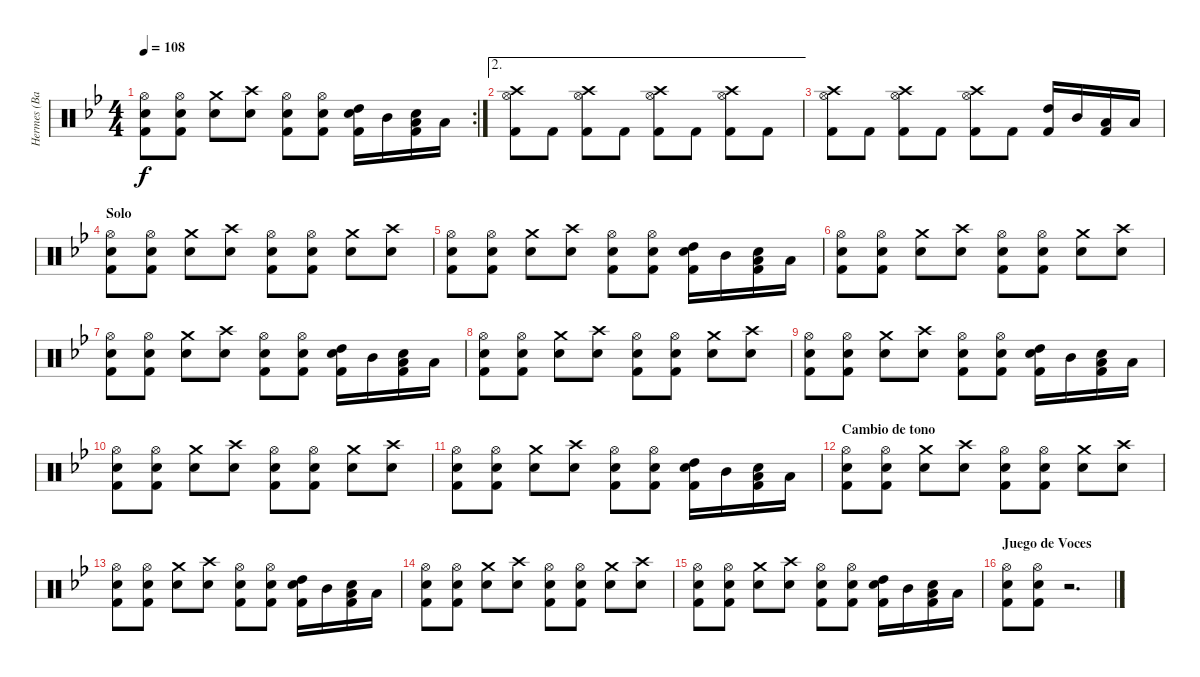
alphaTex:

\track ("Hermes (Bateria)" "Hermes (Ba") {instrument percussion}
\staff {score}
\articulation defaults
\rc 2
\ts (4 4)
\tempo 108
\clef neutral
\ks bb
("Hi-Hat (open)" "Electric Snare (hit)" "Kick (hit) 2").8{dy f} ("Hi-Hat (open)" "Electric Snare (hit)" "Kick (hit) 2").8 ("Crash medium (hit)" "Electric Snare (hit)").8 ("Crash high (hit)" "Electric Snare (hit)").8 ("Hi-Hat (open)" "Electric Snare (hit)" "Kick (hit) 2").8 ("Hi-Hat (open)" "Electric Snare (hit)" "Kick (hit) 2").8 ("High Tom (hit)" "Electric Snare (hit)" "Kick (hit) 2").16 "Mid Tom (hit)".16 ("Low Tom (hit)" "Electric Snare (hit)" "Kick (hit) 2").16 "Low Tom (hit)".16 |
\ae 2
("Crash high (hit)" "Hi-Hat (open)" "Kick (hit) 2").8 "Kick (hit) 2".8 ("Crash high (hit)" "Hi-Hat (open)" "Kick (hit) 2").8 "Kick (hit) 2".8 ("Crash high (hit)" "Hi-Hat (open)" "Kick (hit) 2").8 "Kick (hit) 2".8 ("Crash high (hit)" "Hi-Hat (open)" "Kick (hit) 2").8 "Kick (hit) 2".8 |
("Crash high (hit)" "Hi-Hat (open)" "Kick (hit) 2").8 "Kick (hit) 2".8 ("Crash high (hit)" "Hi-Hat (open)" "Kick (hit) 2").8 "Kick (hit) 2".8 ("Crash high (hit)" "Hi-Hat (open)" "Kick (hit) 2").8 "Kick (hit) 2".8 ("High Tom (hit)" "Kick (hit) 2").16 "Mid Tom (hit)".16 ("Low Tom (hit)" "Kick (hit) 2").16 "Low Tom (hit)".16 |
\section ("" "Solo")
("Hi-Hat (open)" "Electric Snare (hit)" "Kick (hit) 2").8 ("Hi-Hat (open)" "Electric Snare (hit)" "Kick (hit) 2").8 ("Crash medium (hit)" "Electric Snare (hit)").8 ("Crash high (hit)" "Electric Snare (hit)").8 ("Hi-Hat (open)" "Electric Snare (hit)" "Kick (hit) 2").8 ("Hi-Hat (open)" "Electric Snare (hit)" "Kick (hit) 2").8 ("Crash medium (hit)" "Electric Snare (hit)").8 ("Crash high (hit)" "Electric Snare (hit)").8 |
("Hi-Hat (open)" "Electric Snare (hit)" "Kick (hit) 2").8 ("Hi-Hat (open)" "Electric Snare (hit)" "Kick (hit) 2").8 ("Crash medium (hit)" "Electric Snare (hit)").8 ("Crash high (hit)" "Electric Snare (hit)").8 ("Hi-Hat (open)" "Electric Snare (hit)" "Kick (hit) 2").8 ("Hi-Hat (open)" "Electric Snare (hit)" "Kick (hit) 2").8 ("High Tom (hit)" "Electric Snare (hit)" "Kick (hit) 2").16 "Mid Tom (hit)".16 ("Low Tom (hit)" "Electric Snare (hit)" "Kick (hit) 2").16 "Low Tom (hit)".16 |
("Hi-Hat (open)" "Electric Snare (hit)" "Kick (hit) 2").8 ("Hi-Hat (open)" "Electric Snare (hit)" "Kick (hit) 2").8 ("Crash medium (hit)" "Electric Snare (hit)").8 ("Crash high (hit)" "Electric Snare (hit)").8 ("Hi-Hat (open)" "Electric Snare (hit)" "Kick (hit) 2").8 ("Hi-Hat (open)" "Electric Snare (hit)" "Kick (hit) 2").8 ("Crash medium (hit)" "Electric Snare (hit)").8 ("Crash high (hit)" "Electric Snare (hit)").8 |
("Hi-Hat (open)" "Electric Snare (hit)" "Kick (hit) 2").8 ("Hi-Hat (open)" "Electric Snare (hit)" "Kick (hit) 2").8 ("Crash medium (hit)" "Electric Snare (hit)").8 ("Crash high (hit)" "Electric Snare (hit)").8 ("Hi-Hat (open)" "Electric Snare (hit)" "Kick (hit) 2").8 ("Hi-Hat (open)" "Electric Snare (hit)" "Kick (hit) 2").8 ("High Tom (hit)" "Electric Snare (hit)" "Kick (hit) 2").16 "Mid Tom (hit)".16 ("Low Tom (hit)" "Electric Snare (hit)" "Kick (hit) 2").16 "Low Tom (hit)".16 |
("Hi-Hat (open)" "Electric Snare (hit)" "Kick (hit) 2").8 ("Hi-Hat (open)" "Electric Snare (hit)" "Kick (hit) 2").8 ("Crash medium (hit)" "Electric Snare (hit)").8 ("Crash high (hit)" "Electric Snare (hit)").8 ("Hi-Hat (open)" "Electric Snare (hit)" "Kick (hit) 2").8 ("Hi-Hat (open)" "Electric Snare (hit)" "Kick (hit) 2").8 ("Crash medium (hit)" "Electric Snare (hit)").8 ("Crash high (hit)" "Electric Snare (hit)").8 |
("Hi-Hat (open)" "Electric Snare (hit)" "Kick (hit) 2").8 ("Hi-Hat (open)" "Electric Snare (hit)" "Kick (hit) 2").8 ("Crash medium (hit)" "Electric Snare (hit)").8 ("Crash high (hit)" "Electric Snare (hit)").8 ("Hi-Hat (open)" "Electric Snare (hit)" "Kick (hit) 2").8 ("Hi-Hat (open)" "Electric Snare (hit)" "Kick (hit) 2").8 ("High Tom (hit)" "Electric Snare (hit)" "Kick (hit) 2").16 "Mid Tom (hit)".16 ("Low Tom (hit)" "Electric Snare (hit)" "Kick (hit) 2").16 "Low Tom (hit)".16 |
("Hi-Hat (open)" "Electric Snare (hit)" "Kick (hit) 2").8 ("Hi-Hat (open)" "Electric Snare (hit)" "Kick (hit) 2").8 ("Crash medium (hit)" "Electric Snare (hit)").8 ("Crash high (hit)" "Electric Snare (hit)").8 ("Hi-Hat (open)" "Electric Snare (hit)" "Kick (hit) 2").8 ("Hi-Hat (open)" "Electric Snare (hit)" "Kick (hit) 2").8 ("Crash medium (hit)" "Electric Snare (hit)").8 ("Crash high (hit)" "Electric Snare (hit)").8 |
("Hi-Hat (open)" "Electric Snare (hit)" "Kick (hit) 2").8 ("Hi-Hat (open)" "Electric Snare (hit)" "Kick (hit) 2").8 ("Crash medium (hit)" "Electric Snare (hit)").8 ("Crash high (hit)" "Electric Snare (hit)").8 ("Hi-Hat (open)" "Electric Snare (hit)" "Kick (hit) 2").8 ("Hi-Hat (open)" "Electric Snare (hit)" "Kick (hit) 2").8 ("High Tom (hit)" "Electric Snare (hit)" "Kick (hit) 2").16 "Mid Tom (hit)".16 ("Low Tom (hit)" "Electric Snare (hit)" "Kick (hit) 2").16 "Low Tom (hit)".16 |
\section ("" "Cambio de tono")
("Hi-Hat (open)" "Electric Snare (hit)" "Kick (hit) 2").8 ("Hi-Hat (open)" "Electric Snare (hit)" "Kick (hit) 2").8 ("Crash medium (hit)" "Electric Snare (hit)").8 ("Crash high (hit)" "Electric Snare (hit)").8 ("Hi-Hat (open)" "Electric Snare (hit)" "Kick (hit) 2").8 ("Hi-Hat (open)" "Electric Snare (hit)" "Kick (hit) 2").8 ("Crash medium (hit)" "Electric Snare (hit)").8 ("Crash high (hit)" "Electric Snare (hit)").8 |
("Hi-Hat (open)" "Electric Snare (hit)" "Kick (hit) 2").8 ("Hi-Hat (open)" "Electric Snare (hit)" "Kick (hit) 2").8 ("Crash medium (hit)" "Electric Snare (hit)").8 ("Crash high (hit)" "Electric Snare (hit)").8 ("Hi-Hat (open)" "Electric Snare (hit)" "Kick (hit) 2").8 ("Hi-Hat (open)" "Electric Snare (hit)" "Kick (hit) 2").8 ("High Tom (hit)" "Electric Snare (hit)" "Kick (hit) 2").16 "Mid Tom (hit)".16 ("Low Tom (hit)" "Electric Snare (hit)" "Kick (hit) 2").16 "Low Tom (hit)".16 |
("Hi-Hat (open)" "Electric Snare (hit)" "Kick (hit) 2").8 ("Hi-Hat (open)" "Electric Snare (hit)" "Kick (hit) 2").8 ("Crash medium (hit)" "Electric Snare (hit)").8 ("Crash high (hit)" "Electric Snare (hit)").8 ("Hi-Hat (open)" "Electric Snare (hit)" "Kick (hit) 2").8 ("Hi-Hat (open)" "Electric Snare (hit)" "Kick (hit) 2").8 ("Crash medium (hit)" "Electric Snare (hit)").8 ("Crash high (hit)" "Electric Snare (hit)").8 |
("Hi-Hat (open)" "Electric Snare (hit)" "Kick (hit) 2").8 ("Hi-Hat (open)" "Electric Snare (hit)" "Kick (hit) 2").8 ("Crash medium (hit)" "Electric Snare (hit)").8 ("Crash high (hit)" "Electric Snare (hit)").8 ("Hi-Hat (open)" "Electric Snare (hit)" "Kick (hit) 2").8 ("Hi-Hat (open)" "Electric Snare (hit)" "Kick (hit) 2").8 ("High Tom (hit)" "Electric Snare (hit)" "Kick (hit) 2").16 "Mid Tom (hit)".16 ("Low Tom (hit)" "Electric Snare (hit)" "Kick (hit) 2").16 "Low Tom (hit)".16 |
\section ("" "Juego de Voces")
("Hi-Hat (open)" "Electric Snare (hit)" "Kick (hit) 2").8 ("Hi-Hat (open)" "Electric Snare (hit)" "Kick (hit) 2").8 r.2{d}
